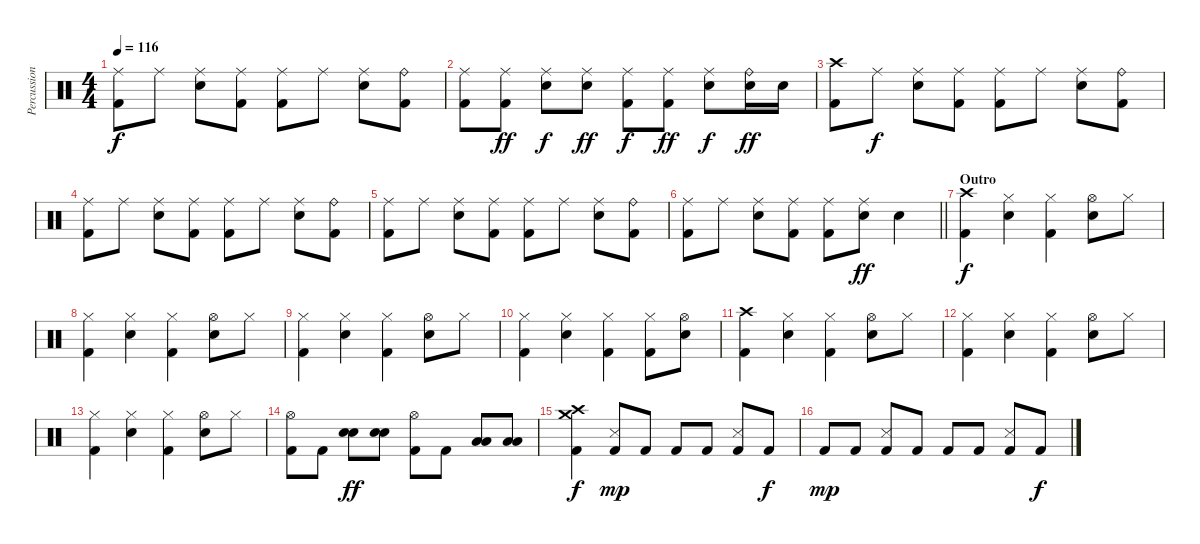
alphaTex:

\track ("Percussion" "Percussion") {instrument percussion}
\staff {score}
\articulation defaults
\ts (4 4)
\tempo 116
\clef neutral
\ks c
("Ride (middle)" "Kick (hit) 2").8{dy f} "Ride (middle)".8 ("Ride (middle)" "Snare (hit) 2").8 ("Ride (middle)" "Kick (hit) 2").8 ("Ride (middle)" "Kick (hit) 2").8 "Ride (middle)".8 ("Ride (middle)" "Snare (hit) 2").8 ("Ride (bell)" "Kick (hit) 2").8 |
("Ride (middle)" "Kick (hit) 2").8 ("Ride (middle)" "Kick (hit) 2").8{dy ff} ("Ride (middle)" "Snare (hit) 2").8{dy f} ("Ride (middle)" "Snare (hit) 2").8{dy ff} ("Ride (middle)" "Kick (hit) 2").8{dy f} ("Ride (middle)" "Kick (hit) 2").8{dy ff} ("Ride (middle)" "Snare (hit) 2").8{dy f} ("Ride (bell)" "Snare (hit) 2").16{dy ff} "Snare (hit) 2".16 |
("Crash high (hit)" "Kick (hit) 2").8 "Ride (middle)".8{dy f} ("Ride (middle)" "Snare (hit) 2").8 ("Ride (middle)" "Kick (hit) 2").8 ("Ride (middle)" "Kick (hit) 2").8 "Ride (middle)".8 ("Ride (middle)" "Snare (hit) 2").8 ("Ride (bell)" "Kick (hit) 2").8 |
("Ride (middle)" "Kick (hit) 2").8 "Ride (middle)".8 ("Ride (middle)" "Snare (hit) 2").8 ("Ride (middle)" "Kick (hit) 2").8 ("Ride (middle)" "Kick (hit) 2").8 "Ride (middle)".8 ("Ride (middle)" "Snare (hit) 2").8 ("Ride (bell)" "Kick (hit) 2").8 |
("Ride (middle)" "Kick (hit) 2").8 "Ride (middle)".8 ("Ride (middle)" "Snare (hit) 2").8 ("Ride (middle)" "Kick (hit) 2").8 ("Ride (middle)" "Kick (hit) 2").8 "Ride (middle)".8 ("Ride (middle)" "Snare (hit) 2").8 ("Ride (bell)" "Kick (hit) 2").8 |
\barLineRight lightlight
("Ride (middle)" "Kick (hit) 2").8 "Ride (middle)".8 ("Ride (middle)" "Snare (hit) 2").8 ("Ride (middle)" "Kick (hit) 2").8 ("Ride (middle)" "Kick (hit) 2").8 ("Ride (middle)" "Snare (hit) 2").8{dy ff} "Snare (hit) 2".4 |
\section ("" "Outro")
("Crash high (hit)" "Kick (hit) 2").4{dy f} ("Hi-Hat (closed)" "Snare (hit) 2").4 ("Hi-Hat (closed)" "Kick (hit) 2").4 ("Hi-Hat (open)" "Snare (hit) 2").8 "Hi-Hat (closed)".8 |
("Hi-Hat (closed)" "Kick (hit) 2").4 ("Hi-Hat (closed)" "Snare (hit) 2").4 ("Hi-Hat (closed)" "Kick (hit) 2").4 ("Hi-Hat (open)" "Snare (hit) 2").8 "Hi-Hat (closed)".8 |
("Hi-Hat (closed)" "Kick (hit) 2").4 ("Hi-Hat (closed)" "Snare (hit) 2").4 ("Hi-Hat (closed)" "Kick (hit) 2").4 ("Hi-Hat (open)" "Snare (hit) 2").8 "Hi-Hat (closed)".8 |
("Hi-Hat (closed)" "Kick (hit) 2").4 ("Hi-Hat (closed)" "Snare (hit) 2").4 ("Hi-Hat (closed)" "Kick (hit) 2").4 ("Hi-Hat (closed)" "Kick (hit) 2").8 ("Hi-Hat (open)" "Snare (hit) 2").8 |
("Crash high (hit)" "Kick (hit) 2").4 ("Hi-Hat (closed)" "Snare (hit) 2").4 ("Hi-Hat (closed)" "Kick (hit) 2").4 ("Hi-Hat (open)" "Snare (hit) 2").8 "Hi-Hat (closed)".8 |
("Hi-Hat (closed)" "Kick (hit) 2").4 ("Hi-Hat (closed)" "Snare (hit) 2").4 ("Hi-Hat (closed)" "Kick (hit) 2").4 ("Hi-Hat (open)" "Snare (hit) 2").8 "Hi-Hat (closed)".8 |
("Hi-Hat (closed)" "Kick (hit) 2").4 ("Hi-Hat (closed)" "Snare (hit) 2").4 ("Hi-Hat (closed)" "Kick (hit) 2").4 ("Hi-Hat (open)" "Snare (hit) 2").8 "Hi-Hat (closed)".8 |
("Hi-Hat (open)" "Kick (hit) 2").8 "Kick (hit) 2".8 ("Snare (hit) 2" "Snare (hit) 2").8{dy ff} ("Snare (hit) 2" "Snare (hit) 2").8 ("Hi-Hat (open)" "Kick (hit) 2").8 "Kick (hit) 2".8 ("Low Floor Tom (hit)" "Low Floor Tom (hit)").8 ("Low Floor Tom (hit)" "Low Floor Tom (hit)").8 |
("Crash medium (hit)" "Crash high (hit)" "Kick (hit) 2").4{dy f} ("Snare (side stick) 3" "Kick (hit) 2").8{dy mp} "Kick (hit) 2".8 "Kick (hit) 2".8 "Kick (hit) 2".8 ("Snare (side stick) 3" "Kick (hit) 2").8 "Kick (hit) 2".8{dy f} |
"Kick (hit) 2".8{dy mp} "Kick (hit) 2".8 ("Snare (side stick) 3" "Kick (hit) 2").8 "Kick (hit) 2".8 "Kick (hit) 2".8 "Kick (hit) 2".8 ("Snare (side stick) 3" "Kick (hit) 2").8 "Kick (hit) 2".8{dy f}
